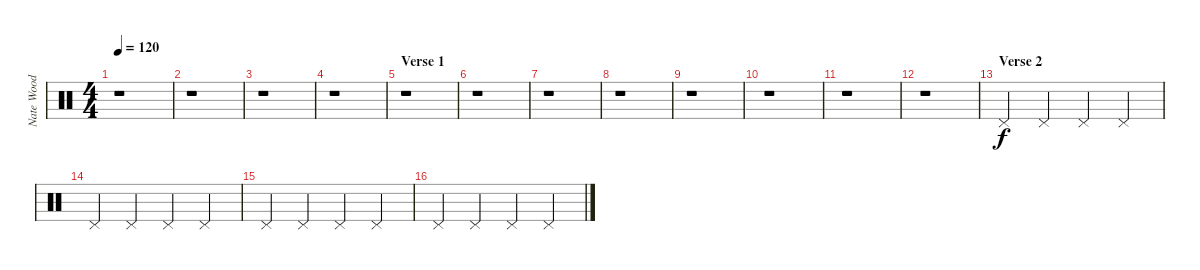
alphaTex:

\track ("Nate Wood  (Drums)" "Nate Wood ") {instrument percussion}
\staff {score}
\articulation defaults
\ts (4 4)
\tempo 120
\clef neutral
\ks c
r.1{dy f} |
r.1 |
r.1 |
r.1 |
\section ("" "Verse 1")
r.1 |
r.1 |
r.1 |
r.1 |
r.1 |
r.1 |
r.1 |
r.1 |
\section ("" "Verse 2")
"Pedal Hi-Hat (hit)".4 "Pedal Hi-Hat (hit)".4 "Pedal Hi-Hat (hit)".4 "Pedal Hi-Hat (hit)".4 |
"Pedal Hi-Hat (hit)".4 "Pedal Hi-Hat (hit)".4 "Pedal Hi-Hat (hit)".4 "Pedal Hi-Hat (hit)".4 |
"Pedal Hi-Hat (hit)".4 "Pedal Hi-Hat (hit)".4 "Pedal Hi-Hat (hit)".4 "Pedal Hi-Hat (hit)".4 |
"Pedal Hi-Hat (hit)".4 "Pedal Hi-Hat (hit)".4 "Pedal Hi-Hat (hit)".4 "Pedal Hi-Hat (hit)".4
